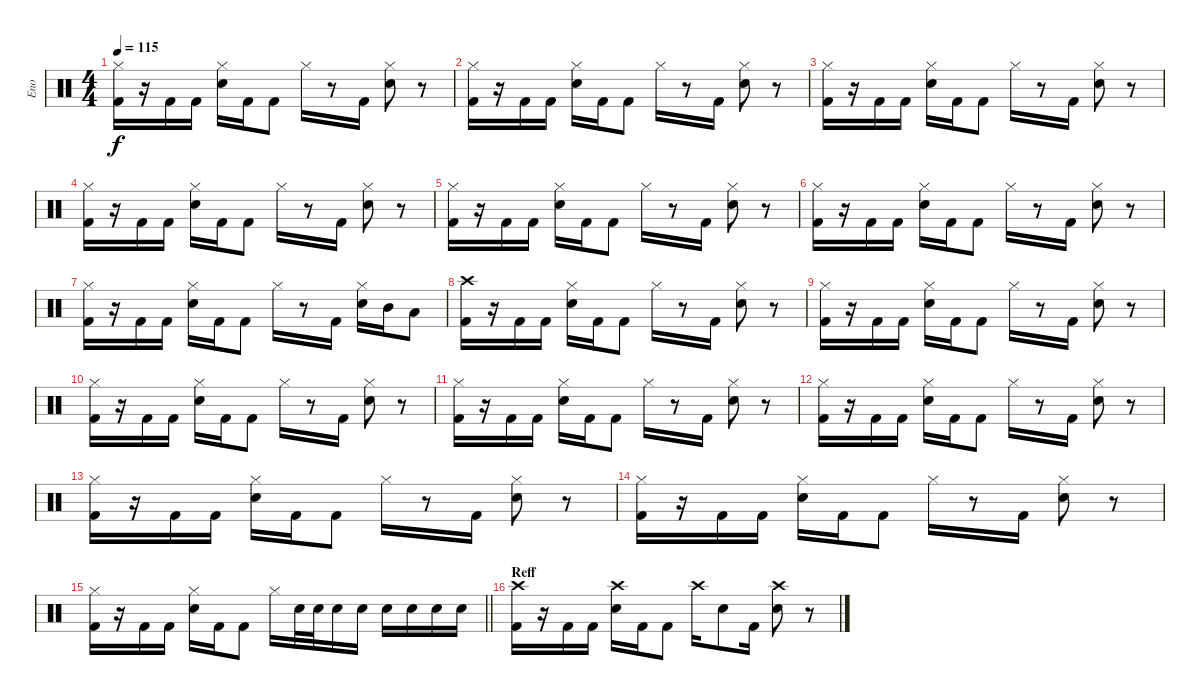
\track ("Eno" "Eno") {instrument percussion}
\staff {score}
\articulation defaults
\ts (4 4)
\tempo 115
\clef neutral
\ks c
("Kick (hit) 2" "Hi-Hat (closed)").16{dy f} r.16 "Kick (hit) 2".16 "Kick (hit) 2".16 ("Electric Snare (hit)" "Hi-Hat (closed)").16 "Kick (hit) 2".16 "Kick (hit) 2".8 "Hi-Hat (closed)".16 r.8 "Kick (hit) 2".16 ("Electric Snare (hit)" "Hi-Hat (closed)").8 r.8 |
("Kick (hit) 2" "Hi-Hat (closed)").16 r.16 "Kick (hit) 2".16 "Kick (hit) 2".16 ("Electric Snare (hit)" "Hi-Hat (closed)").16 "Kick (hit) 2".16 "Kick (hit) 2".8 "Hi-Hat (closed)".16 r.8 "Kick (hit) 2".16 ("Electric Snare (hit)" "Hi-Hat (closed)").8 r.8 |
("Kick (hit) 2" "Hi-Hat (closed)").16 r.16 "Kick (hit) 2".16 "Kick (hit) 2".16 ("Electric Snare (hit)" "Hi-Hat (closed)").16 "Kick (hit) 2".16 "Kick (hit) 2".8 "Hi-Hat (closed)".16 r.8 "Kick (hit) 2".16 ("Electric Snare (hit)" "Hi-Hat (closed)").8 r.8 |
("Kick (hit) 2" "Hi-Hat (closed)").16 r.16 "Kick (hit) 2".16 "Kick (hit) 2".16 ("Electric Snare (hit)" "Hi-Hat (closed)").16 "Kick (hit) 2".16 "Kick (hit) 2".8 "Hi-Hat (closed)".16 r.8 "Kick (hit) 2".16 ("Electric Snare (hit)" "Hi-Hat (closed)").8 r.8 |
("Kick (hit) 2" "Hi-Hat (closed)").16 r.16 "Kick (hit) 2".16 "Kick (hit) 2".16 ("Electric Snare (hit)" "Hi-Hat (closed)").16 "Kick (hit) 2".16 "Kick (hit) 2".8 "Hi-Hat (closed)".16 r.8 "Kick (hit) 2".16 ("Electric Snare (hit)" "Hi-Hat (closed)").8 r.8 |
("Kick (hit) 2" "Hi-Hat (closed)").16 r.16 "Kick (hit) 2".16 "Kick (hit) 2".16 ("Electric Snare (hit)" "Hi-Hat (closed)").16 "Kick (hit) 2".16 "Kick (hit) 2".8 "Hi-Hat (closed)".16 r.8 "Kick (hit) 2".16 ("Electric Snare (hit)" "Hi-Hat (closed)").8 r.8 |
("Kick (hit) 2" "Hi-Hat (closed)").16 r.16 "Kick (hit) 2".16 "Kick (hit) 2".16 ("Electric Snare (hit)" "Hi-Hat (closed)").16 "Kick (hit) 2".16 "Kick (hit) 2".8 "Hi-Hat (closed)".16 r.8 "Kick (hit) 2".16 ("Electric Snare (hit)" "Hi-Hat (closed)").16 "Mid Tom (hit)".16 "Low Tom (hit)".8 |
("Kick (hit) 2" "Crash high (hit)").16 r.16 "Kick (hit) 2".16 "Kick (hit) 2".16 ("Electric Snare (hit)" "Hi-Hat (closed)").16 "Kick (hit) 2".16 "Kick (hit) 2".8 "Hi-Hat (closed)".16 r.8 "Kick (hit) 2".16 ("Electric Snare (hit)" "Hi-Hat (closed)").8 r.8 |
("Kick (hit) 2" "Hi-Hat (closed)").16 r.16 "Kick (hit) 2".16 "Kick (hit) 2".16 ("Electric Snare (hit)" "Hi-Hat (closed)").16 "Kick (hit) 2".16 "Kick (hit) 2".8 "Hi-Hat (closed)".16 r.8 "Kick (hit) 2".16 ("Electric Snare (hit)" "Hi-Hat (closed)").8 r.8 |
("Kick (hit) 2" "Hi-Hat (closed)").16 r.16 "Kick (hit) 2".16 "Kick (hit) 2".16 ("Electric Snare (hit)" "Hi-Hat (closed)").16 "Kick (hit) 2".16 "Kick (hit) 2".8 "Hi-Hat (closed)".16 r.8 "Kick (hit) 2".16 ("Electric Snare (hit)" "Hi-Hat (closed)").8 r.8 |
("Kick (hit) 2" "Hi-Hat (closed)").16 r.16 "Kick (hit) 2".16 "Kick (hit) 2".16 ("Electric Snare (hit)" "Hi-Hat (closed)").16 "Kick (hit) 2".16 "Kick (hit) 2".8 "Hi-Hat (closed)".16 r.8 "Kick (hit) 2".16 ("Electric Snare (hit)" "Hi-Hat (closed)").8 r.8 |
("Kick (hit) 2" "Hi-Hat (closed)").16 r.16 "Kick (hit) 2".16 "Kick (hit) 2".16 ("Electric Snare (hit)" "Hi-Hat (closed)").16 "Kick (hit) 2".16 "Kick (hit) 2".8 "Hi-Hat (closed)".16 r.8 "Kick (hit) 2".16 ("Electric Snare (hit)" "Hi-Hat (closed)").8 r.8 |
("Kick (hit) 2" "Hi-Hat (closed)").16 r.16 "Kick (hit) 2".16 "Kick (hit) 2".16 ("Electric Snare (hit)" "Hi-Hat (closed)").16 "Kick (hit) 2".16 "Kick (hit) 2".8 "Hi-Hat (closed)".16 r.8 "Kick (hit) 2".16 ("Electric Snare (hit)" "Hi-Hat (closed)").8 r.8 |
("Kick (hit) 2" "Hi-Hat (closed)").16 r.16 "Kick (hit) 2".16 "Kick (hit) 2".16 ("Electric Snare (hit)" "Hi-Hat (closed)").16 "Kick (hit) 2".16 "Kick (hit) 2".8 "Hi-Hat (closed)".16 r.8 "Kick (hit) 2".16 ("Electric Snare (hit)" "Hi-Hat (closed)").8 r.8 |
\barLineRight lightlight
("Kick (hit) 2" "Hi-Hat (closed)").16 r.16 "Kick (hit) 2".16 "Kick (hit) 2".16 ("Electric Snare (hit)" "Hi-Hat (closed)").16 "Kick (hit) 2".16 "Kick (hit) 2".8 "Hi-Hat (closed)".16 "Electric Snare (hit)".32 "Electric Snare (hit)".32 "Electric Snare (hit)".16 "Electric Snare (hit)".16 "Electric Snare (hit)".16 "Electric Snare (hit)".16 "Electric Snare (hit)".16 "Electric Snare (hit)".16 |
\section ("" "Reff")
("Kick (hit) 2" "Crash high (hit)").16 r.16 "Kick (hit) 2".16 "Kick (hit) 2".16 ("Electric Snare (hit)" "Crash high (hit)").16 "Kick (hit) 2".16 "Kick (hit) 2".8 "Crash high (hit)".16 "Electric Snare (hit)".8 "Kick (hit) 2".16 ("Electric Snare (hit)" "Crash high (hit)").8 r.8
